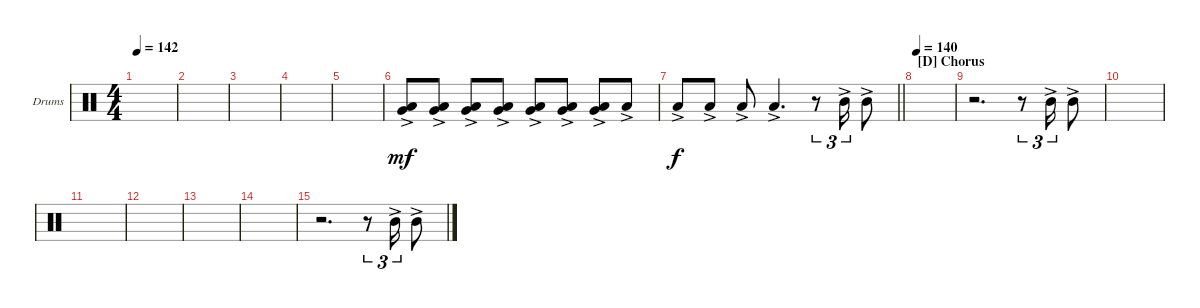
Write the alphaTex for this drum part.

\bracketExtendMode groupsimilarinstruments
\firstSystemTrackNameOrientation horizontal
\otherSystemsTrackNameOrientation horizontal
\track ("Drumkit" "Drums") {instrument percussion}
\staff {score}
\articulation defaults
\ts (4 4)
\tempo 142
\clef neutral
\ks c
|
|
|
|
|
("Low Tom (hit)"{ac} "Very Low Tom (hit)"{ac}).8{dy mf} ("Low Tom (hit)"{ac} "Very Low Tom (hit)"{ac}).8 ("Low Tom (hit)"{ac} "Very Low Tom (hit)"{ac}).8 ("Low Tom (hit)"{ac} "Very Low Tom (hit)"{ac}).8 ("Low Tom (hit)"{ac} "Very Low Tom (hit)"{ac}).8 ("Low Tom (hit)"{ac} "Very Low Tom (hit)"{ac}).8 ("Low Tom (hit)"{ac} "Very Low Tom (hit)"{ac}).8 "Low Tom (hit)"{ac}.8 |
\barLineRight lightlight "Low Tom (hit)"{ac}.8{dy f} "Low Tom (hit)"{ac}.8 "Low Tom (hit)"{ac}.8 "Low Tom (hit)"{ac}.4{d}
r.8{tu (3 2)} "Mid Tom (hit)"{ac}.16{tu (3 2)} "Mid Tom (hit)"{ac}.8 |
\section ("D" "Chorus")
\tempo 140
|
r.2{d} r.8{tu (3 2)} "Mid Tom (hit)"{ac}.16{tu (3 2)} "Mid Tom (hit)"{ac}.8 |
|
|
|
|
|
r.2{d} r.8{tu (3 2)} "Mid Tom (hit)"{ac}.16{tu (3 2)} "Mid Tom (hit)"{ac}.8
